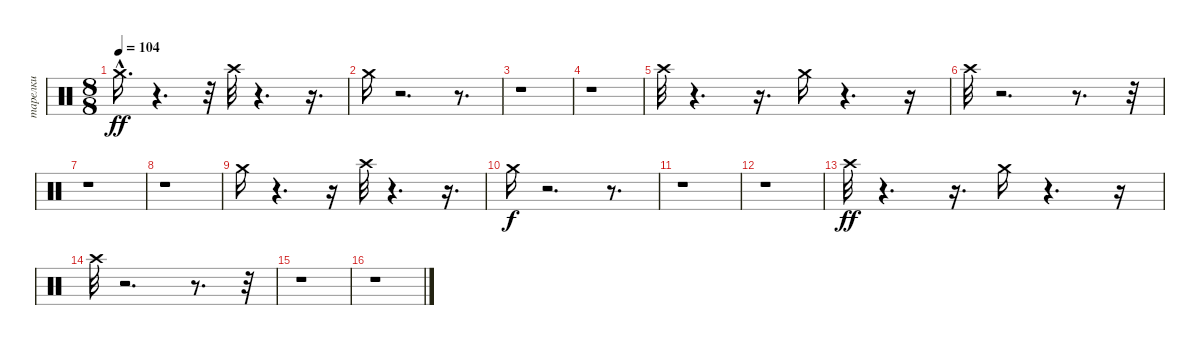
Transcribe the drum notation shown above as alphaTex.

\track ("тарелки" "тарелки") {instrument percussion}
\staff {score}
\articulation defaults
\ts (8 8)
\tempo 104
\clef neutral
\ks c "Crash medium (hit)"{hac}.16{d dy ff}
r.4{d} r.32 "Crash high (hit)".32 r.4{d} r.16{d} |
"Crash medium (hit)".16 r.2{d} r.8{d} |
r.1 |
r.1 |
"Crash high (hit)".32 r.4{d} r.16{d} "Crash medium (hit)".16 r.4{d} r.16 |
"Crash high (hit)".32 r.2{d} r.8{d} r.32 |
r.1 |
r.1 |
"Crash medium (hit)".16 r.4{d} r.16 "Crash high (hit)".32 r.4{d} r.16{d} |
"Crash medium (hit)".16{dy f} r.2{d} r.8{d} |
r.1 |
r.1 |
"Crash high (hit)".32{dy ff} r.4{d} r.16{d} "Crash medium (hit)".16 r.4{d} r.16 |
"Crash high (hit)".32 r.2{d} r.8{d} r.32 |
r.1 |
r.1
